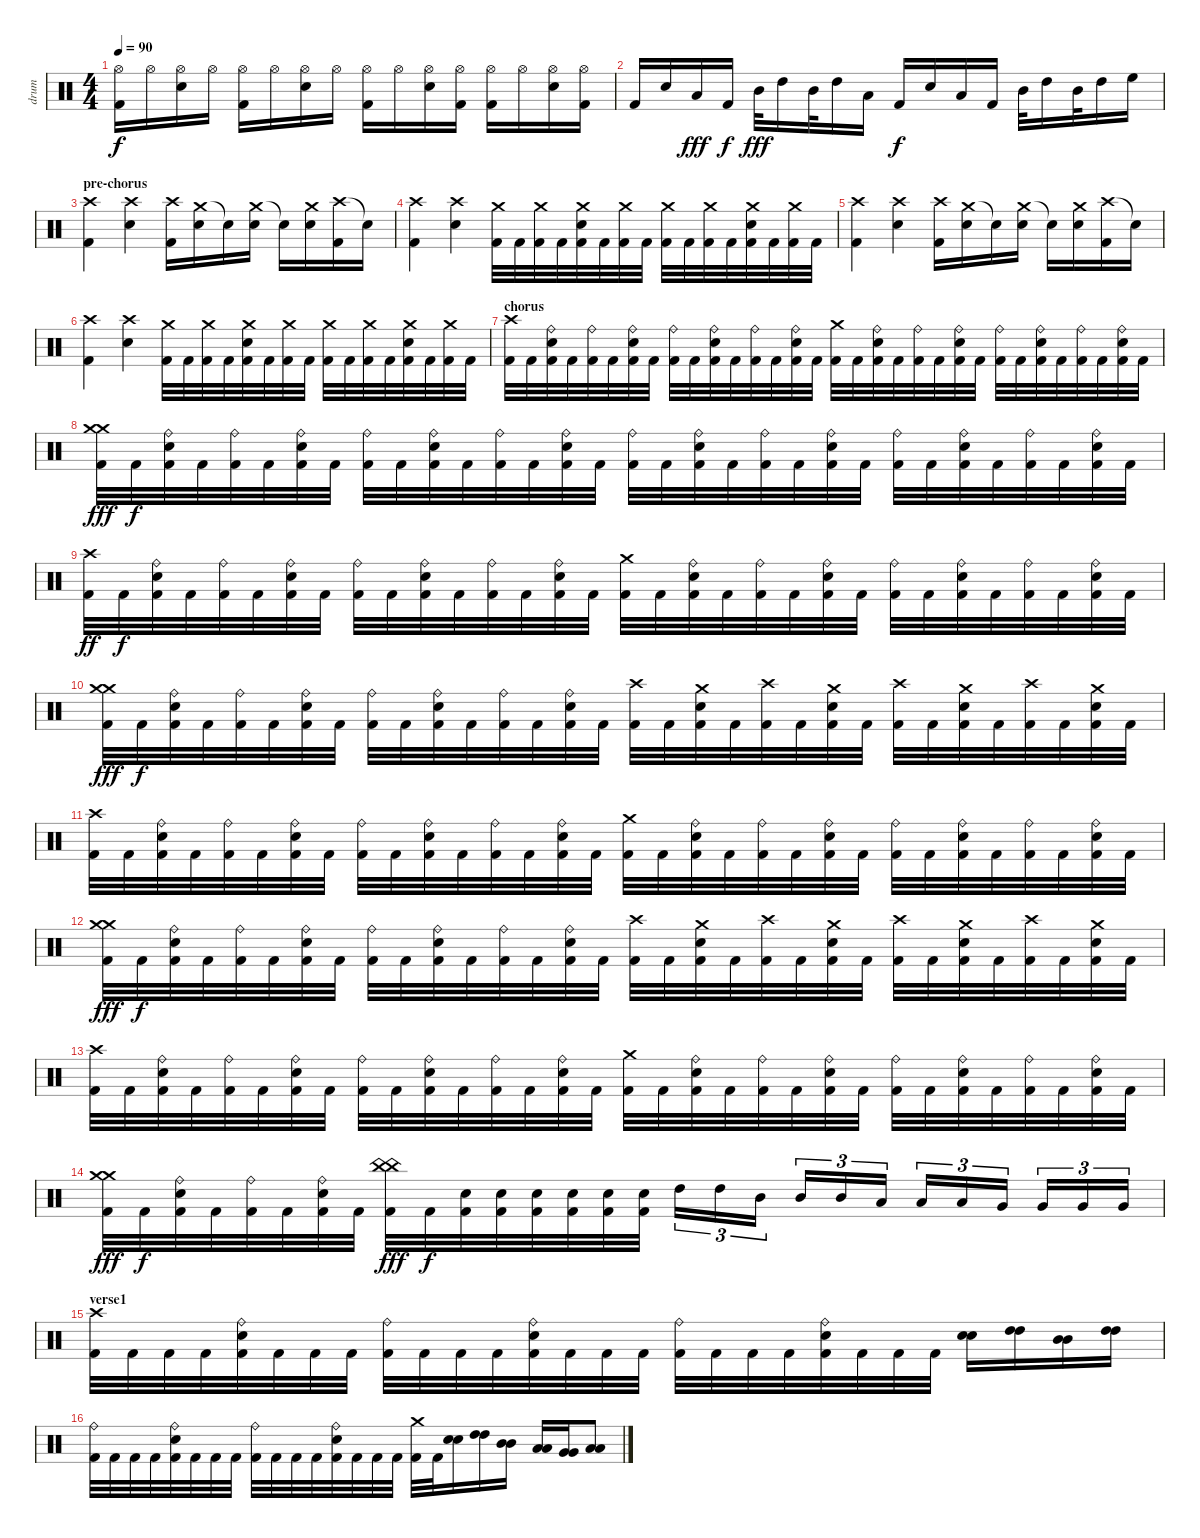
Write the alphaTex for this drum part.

\track ("drum" "drum") {instrument percussion}
\staff {score}
\articulation defaults
\ts (4 4)
\tempo 90
\clef neutral
\ks c
("Hi-Hat (open)" "Kick (hit) 2").16{dy f} "Hi-Hat (open)".16 ("Hi-Hat (open)" "Electric Snare (hit)").16 "Hi-Hat (open)".16 ("Hi-Hat (open)" "Kick (hit) 2").16 "Hi-Hat (open)".16 ("Hi-Hat (open)" "Electric Snare (hit)").16 "Hi-Hat (open)".16 ("Hi-Hat (open)" "Kick (hit) 2").16 "Hi-Hat (open)".16 ("Hi-Hat (open)" "Electric Snare (hit)").16 ("Hi-Hat (open)" "Kick (hit) 2").16 ("Hi-Hat (open)" "Kick (hit) 2").16 "Hi-Hat (open)".16 ("Hi-Hat (open)" "Electric Snare (hit)").16 ("Hi-Hat (open)" "Kick (hit) 2").16 |
"Kick (hit) 2".16 "Electric Snare (hit)".16 "Low Tom (hit)".16{dy fff} "Kick (hit) 2".16{dy f} "Mid Tom (hit)".32{dy fff} "High Tom (hit)".16 "Mid Tom (hit)".32 "High Tom (hit)".16 "Low Tom (hit)".16 "Kick (hit) 2".16{dy f} "Electric Snare (hit)".16 "Low Tom (hit)".16 "Kick (hit) 2".16 "Mid Tom (hit)".32 "High Tom (hit)".16 "Mid Tom (hit)".32 "High Tom (hit)".16 "High Floor Tom (hit)".16 |
\section ("" "pre-chorus")
("Crash high (hit)" "Kick (hit) 2").4 ("Crash high (hit)" "Electric Snare (hit)").4 ("Crash high (hit)" "Kick (hit) 2").16 ("Crash medium (hit)" "Electric Snare (hit)").16 "Snare (hit)"{t}.16 ("Crash medium (hit)" "Electric Snare (hit)").16 "Snare (hit)"{t}.16 ("Crash medium (hit)" "Electric Snare (hit)").16 ("Crash high (hit)" "Kick (hit) 2").16 "Snare (hit)"{t}.16 |
("Crash high (hit)" "Kick (hit) 2").4 ("Crash high (hit)" "Electric Snare (hit)").4 ("Crash medium (hit)" "Kick (hit) 2").32 "Kick (hit) 2".32 ("Crash medium (hit)" "Kick (hit) 2").32 "Kick (hit) 2".32 ("Crash medium (hit)" "Electric Snare (hit)" "Kick (hit) 2").32 "Kick (hit) 2".32 ("Crash medium (hit)" "Kick (hit) 2").32 "Kick (hit) 2".32 ("Crash medium (hit)" "Kick (hit) 2").32 "Kick (hit) 2".32 ("Crash medium (hit)" "Kick (hit) 2").32 "Kick (hit) 2".32 ("Crash medium (hit)" "Electric Snare (hit)" "Kick (hit) 2").32 "Kick (hit) 2".32 ("Crash medium (hit)" "Kick (hit) 2").32 "Kick (hit) 2".32 |
("Crash high (hit)" "Kick (hit) 2").4 ("Crash high (hit)" "Electric Snare (hit)").4 ("Crash high (hit)" "Kick (hit) 2").16 ("Crash medium (hit)" "Electric Snare (hit)").16 "Snare (hit)"{t}.16 ("Crash medium (hit)" "Electric Snare (hit)").16 "Snare (hit)"{t}.16 ("Crash medium (hit)" "Electric Snare (hit)").16 ("Crash high (hit)" "Kick (hit) 2").16 "Snare (hit)"{t}.16 |
("Crash high (hit)" "Kick (hit) 2").4 ("Crash high (hit)" "Electric Snare (hit)").4 ("Crash medium (hit)" "Kick (hit) 2").32 "Kick (hit) 2".32 ("Crash medium (hit)" "Kick (hit) 2").32 "Kick (hit) 2".32 ("Crash medium (hit)" "Electric Snare (hit)" "Kick (hit) 2").32 "Kick (hit) 2".32 ("Crash medium (hit)" "Kick (hit) 2").32 "Kick (hit) 2".32 ("Crash medium (hit)" "Kick (hit) 2").32 "Kick (hit) 2".32 ("Crash medium (hit)" "Kick (hit) 2").32 "Kick (hit) 2".32 ("Crash medium (hit)" "Electric Snare (hit)" "Kick (hit) 2").32 "Kick (hit) 2".32 ("Crash medium (hit)" "Kick (hit) 2").32 "Kick (hit) 2".32 |
\section ("" "chorus")
("Crash high (hit)" "Kick (hit) 2").32 "Kick (hit) 2".32 ("Ride (bell)" "Electric Snare (hit)" "Kick (hit) 2").32 "Kick (hit) 2".32 ("Ride (bell)" "Kick (hit) 2").32 "Kick (hit) 2".32 ("Ride (bell)" "Electric Snare (hit)" "Kick (hit) 2").32 "Kick (hit) 2".32 ("Ride (bell)" "Kick (hit) 2").32 "Kick (hit) 2".32 ("Ride (bell)" "Electric Snare (hit)" "Kick (hit) 2").32 "Kick (hit) 2".32 ("Ride (bell)" "Kick (hit) 2").32 "Kick (hit) 2".32 ("Ride (bell)" "Electric Snare (hit)" "Kick (hit) 2").32 "Kick (hit) 2".32 ("Crash medium (hit)" "Kick (hit) 2").32 "Kick (hit) 2".32 ("Ride (bell)" "Electric Snare (hit)" "Kick (hit) 2").32 "Kick (hit) 2".32 ("Ride (bell)" "Kick (hit) 2").32 "Kick (hit) 2".32 ("Ride (bell)" "Electric Snare (hit)" "Kick (hit) 2").32 "Kick (hit) 2".32 ("Ride (bell)" "Kick (hit) 2").32 "Kick (hit) 2".32 ("Ride (bell)" "Electric Snare (hit)" "Kick (hit) 2").32 "Kick (hit) 2".32 ("Ride (bell)" "Kick (hit) 2").32 "Kick (hit) 2".32 ("Ride (bell)" "Electric Snare (hit)" "Kick (hit) 2").32 "Kick (hit) 2".32 |
("Crash medium (hit)" "Crash medium (hit)" "Kick (hit) 2").32{dy fff} "Kick (hit) 2".32{dy f} ("Ride (bell)" "Electric Snare (hit)" "Kick (hit) 2").32 "Kick (hit) 2".32 ("Ride (bell)" "Kick (hit) 2").32 "Kick (hit) 2".32 ("Ride (bell)" "Electric Snare (hit)" "Kick (hit) 2").32 "Kick (hit) 2".32 ("Ride (bell)" "Kick (hit) 2").32 "Kick (hit) 2".32 ("Ride (bell)" "Electric Snare (hit)" "Kick (hit) 2").32 "Kick (hit) 2".32 ("Ride (bell)" "Kick (hit) 2").32 "Kick (hit) 2".32 ("Ride (bell)" "Electric Snare (hit)" "Kick (hit) 2").32 "Kick (hit) 2".32 ("Ride (bell)" "Kick (hit) 2").32 "Kick (hit) 2".32 ("Ride (bell)" "Electric Snare (hit)" "Kick (hit) 2").32 "Kick (hit) 2".32 ("Ride (bell)" "Kick (hit) 2").32 "Kick (hit) 2".32 ("Ride (bell)" "Electric Snare (hit)" "Kick (hit) 2").32 "Kick (hit) 2".32 ("Ride (bell)" "Kick (hit) 2").32 "Kick (hit) 2".32 ("Ride (bell)" "Electric Snare (hit)" "Kick (hit) 2").32 "Kick (hit) 2".32 ("Ride (bell)" "Kick (hit) 2").32 "Kick (hit) 2".32 ("Ride (bell)" "Electric Snare (hit)" "Kick (hit) 2").32 "Kick (hit) 2".32 |
("Crash high (hit)" "Kick (hit) 2").32{dy ff} "Kick (hit) 2".32{dy f} ("Ride (bell)" "Electric Snare (hit)" "Kick (hit) 2").32 "Kick (hit) 2".32 ("Ride (bell)" "Kick (hit) 2").32 "Kick (hit) 2".32 ("Ride (bell)" "Electric Snare (hit)" "Kick (hit) 2").32 "Kick (hit) 2".32 ("Ride (bell)" "Kick (hit) 2").32 "Kick (hit) 2".32 ("Ride (bell)" "Electric Snare (hit)" "Kick (hit) 2").32 "Kick (hit) 2".32 ("Ride (bell)" "Kick (hit) 2").32 "Kick (hit) 2".32 ("Ride (bell)" "Electric Snare (hit)" "Kick (hit) 2").32 "Kick (hit) 2".32 ("Crash medium (hit)" "Kick (hit) 2").32 "Kick (hit) 2".32 ("Ride (bell)" "Electric Snare (hit)" "Kick (hit) 2").32 "Kick (hit) 2".32 ("Ride (bell)" "Kick (hit) 2").32 "Kick (hit) 2".32 ("Ride (bell)" "Electric Snare (hit)" "Kick (hit) 2").32 "Kick (hit) 2".32 ("Ride (bell)" "Kick (hit) 2").32 "Kick (hit) 2".32 ("Ride (bell)" "Electric Snare (hit)" "Kick (hit) 2").32 "Kick (hit) 2".32 ("Ride (bell)" "Kick (hit) 2").32 "Kick (hit) 2".32 ("Ride (bell)" "Electric Snare (hit)" "Kick (hit) 2").32 "Kick (hit) 2".32 |
("Crash medium (hit)" "Crash medium (hit)" "Kick (hit) 2").32{dy fff} "Kick (hit) 2".32{dy f} ("Ride (bell)" "Electric Snare (hit)" "Kick (hit) 2").32 "Kick (hit) 2".32 ("Ride (bell)" "Kick (hit) 2").32 "Kick (hit) 2".32 ("Ride (bell)" "Electric Snare (hit)" "Kick (hit) 2").32 "Kick (hit) 2".32 ("Ride (bell)" "Kick (hit) 2").32 "Kick (hit) 2".32 ("Ride (bell)" "Electric Snare (hit)" "Kick (hit) 2").32 "Kick (hit) 2".32 ("Ride (bell)" "Kick (hit) 2").32 "Kick (hit) 2".32 ("Ride (bell)" "Electric Snare (hit)" "Kick (hit) 2").32 "Kick (hit) 2".32 ("Crash high (hit)" "Kick (hit) 2").32 "Kick (hit) 2".32 ("Crash medium (hit)" "Electric Snare (hit)" "Kick (hit) 2").32 "Kick (hit) 2".32 ("Crash high (hit)" "Kick (hit) 2").32 "Kick (hit) 2".32 ("Crash medium (hit)" "Electric Snare (hit)" "Kick (hit) 2").32 "Kick (hit) 2".32 ("Crash high (hit)" "Kick (hit) 2").32 "Kick (hit) 2".32 ("Crash medium (hit)" "Electric Snare (hit)" "Kick (hit) 2").32 "Kick (hit) 2".32 ("Crash high (hit)" "Kick (hit) 2").32 "Kick (hit) 2".32 ("Crash medium (hit)" "Electric Snare (hit)" "Kick (hit) 2").32 "Kick (hit) 2".32 |
("Crash high (hit)" "Kick (hit) 2").32 "Kick (hit) 2".32 ("Ride (bell)" "Electric Snare (hit)" "Kick (hit) 2").32 "Kick (hit) 2".32 ("Ride (bell)" "Kick (hit) 2").32 "Kick (hit) 2".32 ("Ride (bell)" "Electric Snare (hit)" "Kick (hit) 2").32 "Kick (hit) 2".32 ("Ride (bell)" "Kick (hit) 2").32 "Kick (hit) 2".32 ("Ride (bell)" "Electric Snare (hit)" "Kick (hit) 2").32 "Kick (hit) 2".32 ("Ride (bell)" "Kick (hit) 2").32 "Kick (hit) 2".32 ("Ride (bell)" "Electric Snare (hit)" "Kick (hit) 2").32 "Kick (hit) 2".32 ("Crash medium (hit)" "Kick (hit) 2").32 "Kick (hit) 2".32 ("Ride (bell)" "Electric Snare (hit)" "Kick (hit) 2").32 "Kick (hit) 2".32 ("Ride (bell)" "Kick (hit) 2").32 "Kick (hit) 2".32 ("Ride (bell)" "Electric Snare (hit)" "Kick (hit) 2").32 "Kick (hit) 2".32 ("Ride (bell)" "Kick (hit) 2").32 "Kick (hit) 2".32 ("Ride (bell)" "Electric Snare (hit)" "Kick (hit) 2").32 "Kick (hit) 2".32 ("Ride (bell)" "Kick (hit) 2").32 "Kick (hit) 2".32 ("Ride (bell)" "Electric Snare (hit)" "Kick (hit) 2").32 "Kick (hit) 2".32 |
("Crash medium (hit)" "Crash medium (hit)" "Kick (hit) 2").32{dy fff} "Kick (hit) 2".32{dy f} ("Ride (bell)" "Electric Snare (hit)" "Kick (hit) 2").32 "Kick (hit) 2".32 ("Ride (bell)" "Kick (hit) 2").32 "Kick (hit) 2".32 ("Ride (bell)" "Electric Snare (hit)" "Kick (hit) 2").32 "Kick (hit) 2".32 ("Ride (bell)" "Kick (hit) 2").32 "Kick (hit) 2".32 ("Ride (bell)" "Electric Snare (hit)" "Kick (hit) 2").32 "Kick (hit) 2".32 ("Ride (bell)" "Kick (hit) 2").32 "Kick (hit) 2".32 ("Ride (bell)" "Electric Snare (hit)" "Kick (hit) 2").32 "Kick (hit) 2".32 ("Crash high (hit)" "Kick (hit) 2").32 "Kick (hit) 2".32 ("Crash medium (hit)" "Electric Snare (hit)" "Kick (hit) 2").32 "Kick (hit) 2".32 ("Crash high (hit)" "Kick (hit) 2").32 "Kick (hit) 2".32 ("Crash medium (hit)" "Electric Snare (hit)" "Kick (hit) 2").32 "Kick (hit) 2".32 ("Crash high (hit)" "Kick (hit) 2").32 "Kick (hit) 2".32 ("Crash medium (hit)" "Electric Snare (hit)" "Kick (hit) 2").32 "Kick (hit) 2".32 ("Crash high (hit)" "Kick (hit) 2").32 "Kick (hit) 2".32 ("Crash medium (hit)" "Electric Snare (hit)" "Kick (hit) 2").32 "Kick (hit) 2".32 |
("Crash high (hit)" "Kick (hit) 2").32 "Kick (hit) 2".32 ("Ride (bell)" "Electric Snare (hit)" "Kick (hit) 2").32 "Kick (hit) 2".32 ("Ride (bell)" "Kick (hit) 2").32 "Kick (hit) 2".32 ("Ride (bell)" "Electric Snare (hit)" "Kick (hit) 2").32 "Kick (hit) 2".32 ("Ride (bell)" "Kick (hit) 2").32 "Kick (hit) 2".32 ("Ride (bell)" "Electric Snare (hit)" "Kick (hit) 2").32 "Kick (hit) 2".32 ("Ride (bell)" "Kick (hit) 2").32 "Kick (hit) 2".32 ("Ride (bell)" "Electric Snare (hit)" "Kick (hit) 2").32 "Kick (hit) 2".32 ("Crash medium (hit)" "Kick (hit) 2").32 "Kick (hit) 2".32 ("Ride (bell)" "Electric Snare (hit)" "Kick (hit) 2").32 "Kick (hit) 2".32 ("Ride (bell)" "Kick (hit) 2").32 "Kick (hit) 2".32 ("Ride (bell)" "Electric Snare (hit)" "Kick (hit) 2").32 "Kick (hit) 2".32 ("Ride (bell)" "Kick (hit) 2").32 "Kick (hit) 2".32 ("Ride (bell)" "Electric Snare (hit)" "Kick (hit) 2").32 "Kick (hit) 2".32 ("Ride (bell)" "Kick (hit) 2").32 "Kick (hit) 2".32 ("Ride (bell)" "Electric Snare (hit)" "Kick (hit) 2").32 "Kick (hit) 2".32 |
("Crash medium (hit)" "Crash medium (hit)" "Kick (hit) 2").32{dy fff} "Kick (hit) 2".32{dy f} ("Ride (bell)" "Electric Snare (hit)" "Kick (hit) 2").32 "Kick (hit) 2".32 ("Ride (bell)" "Kick (hit) 2").32 "Kick (hit) 2".32 ("Ride (bell)" "Electric Snare (hit)" "Kick (hit) 2").32 "Kick (hit) 2".32 ("China (hit)" "China (hit)" "Kick (hit) 2").32{dy fff} "Kick (hit) 2".32{dy f} ("Electric Snare (hit)" "Kick (hit) 2").32 ("Electric Snare (hit)" "Kick (hit) 2").32 ("Electric Snare (hit)" "Kick (hit) 2").32 ("Electric Snare (hit)" "Kick (hit) 2").32 ("Electric Snare (hit)" "Kick (hit) 2").32 ("Electric Snare (hit)" "Kick (hit) 2").32 "High Tom (hit)".16{tu (3 2)} "High Tom (hit)".16{tu (3 2)} "Mid Tom (hit)".16{tu (3 2)} "Mid Tom (hit)".16{tu (3 2)} "Mid Tom (hit)".16{tu (3 2)} "Low Tom (hit)".16{tu (3 2)} "Low Tom (hit)".16{tu (3 2)} "Low Tom (hit)".16{tu (3 2)} "Very Low Tom (hit)".16{tu (3 2)} "Very Low Tom (hit)".16{tu (3 2)} "Very Low Tom (hit)".16{tu (3 2)} "Very Low Tom (hit)".16{tu (3 2)} |
\section ("" "verse1")
("Crash high (hit)" "Kick (hit) 2").32 "Kick (hit) 2".32 "Kick (hit) 2".32 "Kick (hit) 2".32 ("Ride (bell)" "Electric Snare (hit)" "Kick (hit) 2").32 "Kick (hit) 2".32 "Kick (hit) 2".32 "Kick (hit) 2".32 ("Ride (bell)" "Kick (hit) 2").32 "Kick (hit) 2".32 "Kick (hit) 2".32 "Kick (hit) 2".32 ("Ride (bell)" "Electric Snare (hit)" "Kick (hit) 2").32 "Kick (hit) 2".32 "Kick (hit) 2".32 "Kick (hit) 2".32 ("Ride (bell)" "Kick (hit) 2").32 "Kick (hit) 2".32 "Kick (hit) 2".32 "Kick (hit) 2".32 ("Ride (bell)" "Electric Snare (hit)" "Kick (hit) 2").32 "Kick (hit) 2".32 "Kick (hit) 2".32 "Kick (hit) 2".32 ("Electric Snare (hit)" "Electric Snare (hit)").16 ("High Tom (hit)" "High Tom (hit)").16 ("Mid Tom (hit)" "Mid Tom (hit)").16 ("High Tom (hit)" "High Tom (hit)").16 |
("Ride (bell)" "Kick (hit) 2").32 "Kick (hit) 2".32 "Kick (hit) 2".32 "Kick (hit) 2".32 ("Ride (bell)" "Electric Snare (hit)" "Kick (hit) 2").32 "Kick (hit) 2".32 "Kick (hit) 2".32 "Kick (hit) 2".32 ("Ride (bell)" "Kick (hit) 2").32 "Kick (hit) 2".32 "Kick (hit) 2".32 "Kick (hit) 2".32 ("Ride (bell)" "Electric Snare (hit)" "Kick (hit) 2").32 "Kick (hit) 2".32 "Kick (hit) 2".32 "Kick (hit) 2".32 ("Crash medium (hit)" "Kick (hit) 2").32 "Kick (hit) 2".32 ("Electric Snare (hit)" "Electric Snare (hit)").16 ("High Tom (hit)" "High Tom (hit)").16 ("Mid Tom (hit)" "Mid Tom (hit)").16 ("Low Tom (hit)" "Low Tom (hit)").16 ("Very Low Tom (hit)" "Very Low Tom (hit)").16 ("Low Floor Tom (hit)" "Low Floor Tom (hit)").8
